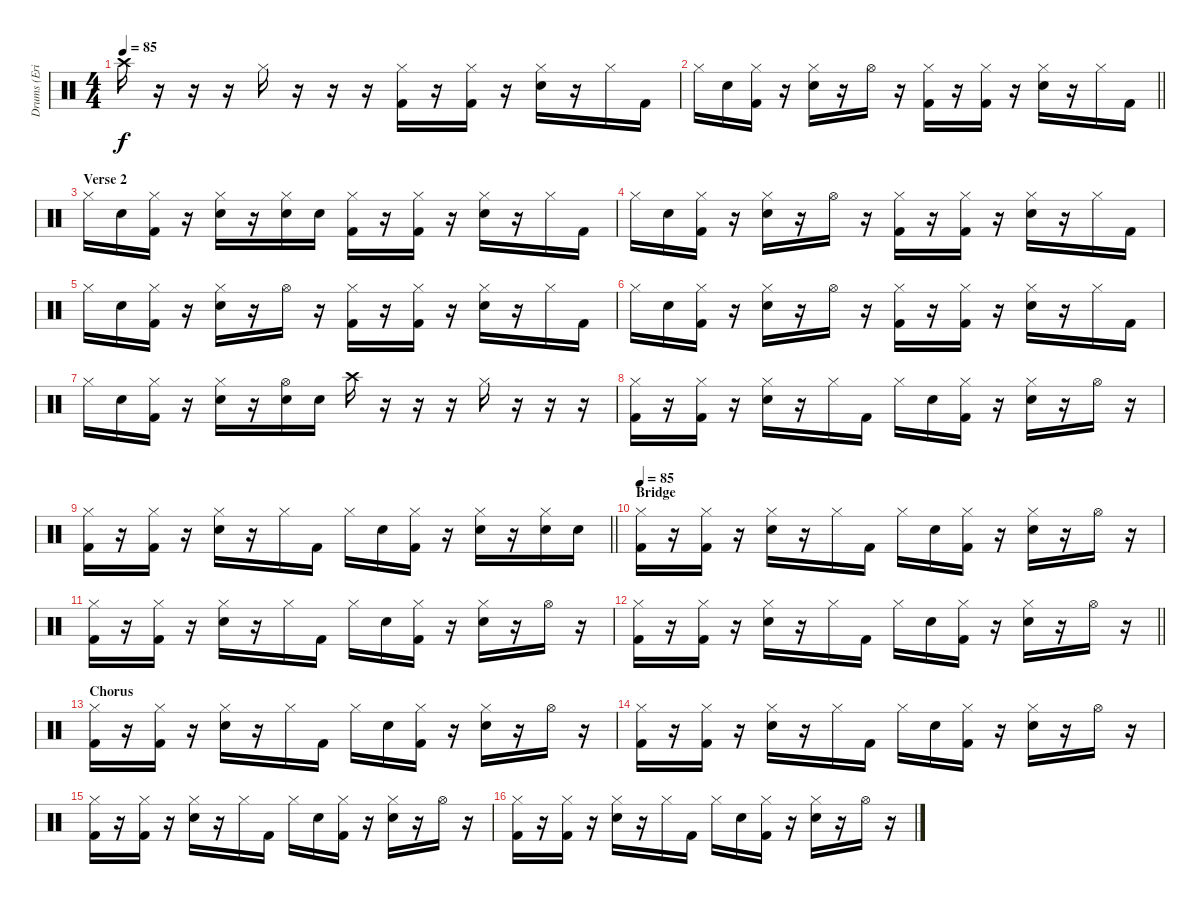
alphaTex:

\track ("Drums (Eric Kretz)" "Drums (Eri") {instrument percussion}
\staff {score}
\articulation defaults
\ts (4 4)
\tempo 85
\clef neutral
\ks c "Crash high (hit)".16{dy f}
r.16 r.16 r.16 "Hi-Hat (closed)".16 r.16 r.16 r.16 ("Hi-Hat (closed)" "Kick (hit) 2").16 r.16 ("Hi-Hat (closed)" "Kick (hit) 2").16 r.16 ("Hi-Hat (closed)" "Electric Snare (hit)").16 r.16 "Hi-Hat (closed)".16 "Kick (hit) 2".16 |
\barLineRight lightlight "Hi-Hat (closed)".16 "Electric Snare (hit)".16
("Hi-Hat (closed)" "Kick (hit) 2").16 r.16 ("Hi-Hat (closed)" "Electric Snare (hit)").16 r.16 "Hi-Hat (open)".16 r.16 ("Hi-Hat (closed)" "Kick (hit) 2").16 r.16 ("Hi-Hat (closed)" "Kick (hit) 2").16 r.16 ("Hi-Hat (closed)" "Electric Snare (hit)").16 r.16 "Hi-Hat (closed)".16 "Kick (hit) 2".16 |
\section ("" "Verse 2")
"Hi-Hat (closed)".16 "Electric Snare (hit)".16 ("Hi-Hat (closed)" "Kick (hit) 2").16 r.16 ("Hi-Hat (closed)" "Electric Snare (hit)").16 r.16 ("Hi-Hat (closed)" "Electric Snare (hit)").16 "Electric Snare (hit)".16 ("Hi-Hat (closed)" "Kick (hit) 2").16 r.16 ("Hi-Hat (closed)" "Kick (hit) 2").16 r.16 ("Hi-Hat (closed)" "Electric Snare (hit)").16 r.16 "Hi-Hat (closed)".16 "Kick (hit) 2".16 |
"Hi-Hat (closed)".16 "Electric Snare (hit)".16 ("Hi-Hat (closed)" "Kick (hit) 2").16 r.16 ("Hi-Hat (closed)" "Electric Snare (hit)").16 r.16 "Hi-Hat (open)".16 r.16 ("Hi-Hat (closed)" "Kick (hit) 2").16 r.16 ("Hi-Hat (closed)" "Kick (hit) 2").16 r.16 ("Hi-Hat (closed)" "Electric Snare (hit)").16 r.16 "Hi-Hat (closed)".16 "Kick (hit) 2".16 |
"Hi-Hat (closed)".16 "Electric Snare (hit)".16 ("Hi-Hat (closed)" "Kick (hit) 2").16 r.16 ("Hi-Hat (closed)" "Electric Snare (hit)").16 r.16 "Hi-Hat (open)".16 r.16 ("Hi-Hat (closed)" "Kick (hit) 2").16 r.16 ("Hi-Hat (closed)" "Kick (hit) 2").16 r.16 ("Hi-Hat (closed)" "Electric Snare (hit)").16 r.16 "Hi-Hat (closed)".16 "Kick (hit) 2".16 |
"Hi-Hat (closed)".16 "Electric Snare (hit)".16 ("Hi-Hat (closed)" "Kick (hit) 2").16 r.16 ("Hi-Hat (closed)" "Electric Snare (hit)").16 r.16 "Hi-Hat (open)".16 r.16 ("Hi-Hat (closed)" "Kick (hit) 2").16 r.16 ("Hi-Hat (closed)" "Kick (hit) 2").16 r.16 ("Hi-Hat (closed)" "Electric Snare (hit)").16 r.16 "Hi-Hat (closed)".16 "Kick (hit) 2".16 |
"Hi-Hat (closed)".16 "Electric Snare (hit)".16 ("Hi-Hat (closed)" "Kick (hit) 2").16 r.16 ("Hi-Hat (closed)" "Electric Snare (hit)").16 r.16 ("Hi-Hat (open)" "Electric Snare (hit)").16 "Electric Snare (hit)".16 "Crash high (hit)".16 r.16 r.16 r.16 "Hi-Hat (closed)".16 r.16 r.16 r.16 |
("Hi-Hat (closed)" "Kick (hit) 2").16 r.16 ("Hi-Hat (closed)" "Kick (hit) 2").16 r.16 ("Hi-Hat (closed)" "Electric Snare (hit)").16 r.16 "Hi-Hat (closed)".16 "Kick (hit) 2".16 "Hi-Hat (closed)".16 "Electric Snare (hit)".16 ("Hi-Hat (closed)" "Kick (hit) 2").16 r.16 ("Hi-Hat (closed)" "Electric Snare (hit)").16 r.16 "Hi-Hat (open)".16 r.16 |
\barLineRight lightlight
("Hi-Hat (closed)" "Kick (hit) 2").16 r.16 ("Hi-Hat (closed)" "Kick (hit) 2").16 r.16 ("Hi-Hat (closed)" "Electric Snare (hit)").16 r.16 "Hi-Hat (closed)".16 "Kick (hit) 2".16 "Hi-Hat (closed)".16 "Electric Snare (hit)".16 ("Hi-Hat (closed)" "Kick (hit) 2").16 r.16 ("Hi-Hat (closed)" "Electric Snare (hit)").16 r.16 ("Hi-Hat (closed)" "Electric Snare (hit)").16 "Electric Snare (hit)".16 |
\section ("" "Bridge")
\tempo 85
("Hi-Hat (closed)" "Kick (hit) 2").16{volume 16} r.16 ("Hi-Hat (closed)" "Kick (hit) 2").16 r.16 ("Hi-Hat (closed)" "Electric Snare (hit)").16 r.16 "Hi-Hat (closed)".16 "Kick (hit) 2".16 "Hi-Hat (closed)".16 "Electric Snare (hit)".16 ("Hi-Hat (closed)" "Kick (hit) 2").16 r.16 ("Hi-Hat (closed)" "Electric Snare (hit)").16 r.16 "Hi-Hat (open)".16 r.16 |
("Hi-Hat (closed)" "Kick (hit) 2").16 r.16 ("Hi-Hat (closed)" "Kick (hit) 2").16 r.16 ("Hi-Hat (closed)" "Electric Snare (hit)").16 r.16 "Hi-Hat (closed)".16 "Kick (hit) 2".16 "Hi-Hat (closed)".16 "Electric Snare (hit)".16 ("Hi-Hat (closed)" "Kick (hit) 2").16 r.16 ("Hi-Hat (closed)" "Electric Snare (hit)").16 r.16 "Hi-Hat (open)".16 r.16 |
\barLineRight lightlight
("Hi-Hat (closed)" "Kick (hit) 2").16 r.16 ("Hi-Hat (closed)" "Kick (hit) 2").16 r.16 ("Hi-Hat (closed)" "Electric Snare (hit)").16 r.16 "Hi-Hat (closed)".16 "Kick (hit) 2".16 "Hi-Hat (closed)".16 "Electric Snare (hit)".16 ("Hi-Hat (closed)" "Kick (hit) 2").16 r.16 ("Hi-Hat (closed)" "Electric Snare (hit)").16 r.16 "Hi-Hat (open)".16 r.16 |
\section ("" "Chorus")
("Hi-Hat (closed)" "Kick (hit) 2").16 r.16 ("Hi-Hat (closed)" "Kick (hit) 2").16 r.16 ("Hi-Hat (closed)" "Electric Snare (hit)").16 r.16 "Hi-Hat (closed)".16 "Kick (hit) 2".16 "Hi-Hat (closed)".16 "Electric Snare (hit)".16 ("Hi-Hat (closed)" "Kick (hit) 2").16 r.16 ("Hi-Hat (closed)" "Electric Snare (hit)").16 r.16 "Hi-Hat (open)".16 r.16 |
("Hi-Hat (closed)" "Kick (hit) 2").16 r.16 ("Hi-Hat (closed)" "Kick (hit) 2").16 r.16 ("Hi-Hat (closed)" "Electric Snare (hit)").16 r.16 "Hi-Hat (closed)".16 "Kick (hit) 2".16 "Hi-Hat (closed)".16 "Electric Snare (hit)".16 ("Hi-Hat (closed)" "Kick (hit) 2").16 r.16 ("Hi-Hat (closed)" "Electric Snare (hit)").16 r.16 "Hi-Hat (open)".16 r.16 |
("Hi-Hat (closed)" "Kick (hit) 2").16 r.16 ("Hi-Hat (closed)" "Kick (hit) 2").16 r.16 ("Hi-Hat (closed)" "Electric Snare (hit)").16 r.16 "Hi-Hat (closed)".16 "Kick (hit) 2".16 "Hi-Hat (closed)".16 "Electric Snare (hit)".16 ("Hi-Hat (closed)" "Kick (hit) 2").16 r.16 ("Hi-Hat (closed)" "Electric Snare (hit)").16 r.16 "Hi-Hat (open)".16 r.16 |
("Hi-Hat (closed)" "Kick (hit) 2").16 r.16 ("Hi-Hat (closed)" "Kick (hit) 2").16 r.16 ("Hi-Hat (closed)" "Electric Snare (hit)").16 r.16 "Hi-Hat (closed)".16 "Kick (hit) 2".16 "Hi-Hat (closed)".16 "Electric Snare (hit)".16 ("Hi-Hat (closed)" "Kick (hit) 2").16 r.16 ("Hi-Hat (closed)" "Electric Snare (hit)").16 r.16 "Hi-Hat (open)".16 r.16
